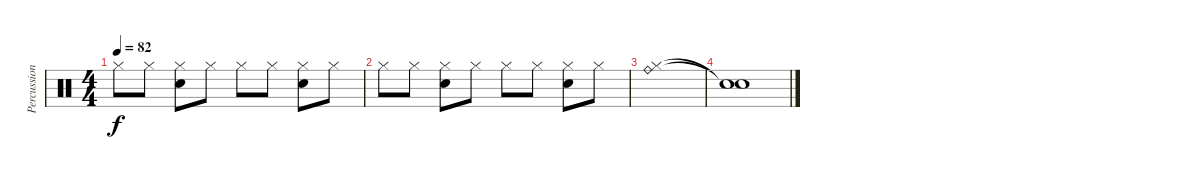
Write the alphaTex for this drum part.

\track ("Percussions" "Percussion") {instrument percussion}
\staff {score}
\articulation defaults
\ts (4 4)
\tempo 82
\clef neutral
\ks c "Hi-Hat (closed)".8{dy f} "Hi-Hat (closed)".8
("Hi-Hat (closed)" "Electric Snare (hit)").8 "Hi-Hat (closed)".8 "Hi-Hat (closed)".8 "Hi-Hat (closed)".8 ("Hi-Hat (closed)" "Electric Snare (hit)").8 "Hi-Hat (closed)".8 |
"Hi-Hat (closed)".8 "Hi-Hat (closed)".8 ("Hi-Hat (closed)" "Electric Snare (hit)").8 "Hi-Hat (closed)".8 "Hi-Hat (closed)".8 "Hi-Hat (closed)".8 ("Hi-Hat (closed)" "Electric Snare (hit)").8 "Hi-Hat (closed)".8 |
("Hi-Hat (closed)" "Ride (bell)").1 |
("Snare (hit)"{t} "Snare (hit)"{t}).1
